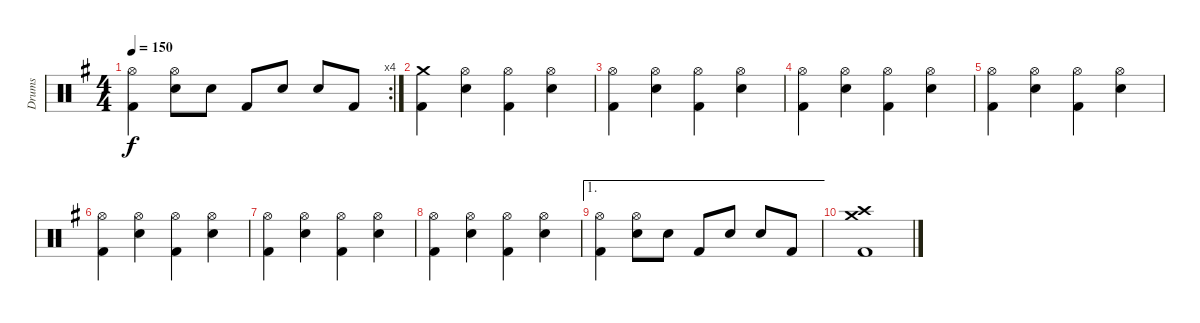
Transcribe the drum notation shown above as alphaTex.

\track ("Drums" "Drums") {instrument percussion}
\staff {score}
\articulation defaults
\rc 4
\ts (4 4)
\tempo 150
\clef neutral
\ks g
("Hi-Hat (open)" "Kick (hit) 2").4{dy f} ("Hi-Hat (open)" "Electric Snare (hit)").8 "Electric Snare (hit)".8 "Kick (hit) 2".8 "Electric Snare (hit)".8 "Electric Snare (hit)".8 "Kick (hit) 2".8 |
("Crash medium (hit)" "Kick (hit) 2").4 ("Hi-Hat (open)" "Electric Snare (hit)").4 ("Hi-Hat (open)" "Kick (hit) 2").4 ("Hi-Hat (open)" "Electric Snare (hit)").4 |
("Hi-Hat (open)" "Kick (hit) 2").4 ("Hi-Hat (open)" "Electric Snare (hit)").4 ("Hi-Hat (open)" "Kick (hit) 2").4 ("Hi-Hat (open)" "Electric Snare (hit)").4 |
("Hi-Hat (open)" "Kick (hit) 2").4 ("Hi-Hat (open)" "Electric Snare (hit)").4 ("Hi-Hat (open)" "Kick (hit) 2").4 ("Hi-Hat (open)" "Electric Snare (hit)").4 |
("Hi-Hat (open)" "Kick (hit) 2").4 ("Hi-Hat (open)" "Electric Snare (hit)").4 ("Hi-Hat (open)" "Kick (hit) 2").4 ("Hi-Hat (open)" "Electric Snare (hit)").4 |
("Hi-Hat (open)" "Kick (hit) 2").4 ("Hi-Hat (open)" "Electric Snare (hit)").4 ("Hi-Hat (open)" "Kick (hit) 2").4 ("Hi-Hat (open)" "Electric Snare (hit)").4 |
("Hi-Hat (open)" "Kick (hit) 2").4 ("Hi-Hat (open)" "Electric Snare (hit)").4 ("Hi-Hat (open)" "Kick (hit) 2").4 ("Hi-Hat (open)" "Electric Snare (hit)").4 |
("Hi-Hat (open)" "Kick (hit) 2").4 ("Hi-Hat (open)" "Electric Snare (hit)").4 ("Hi-Hat (open)" "Kick (hit) 2").4 ("Hi-Hat (open)" "Electric Snare (hit)").4 |
\ae 1
("Hi-Hat (open)" "Kick (hit) 2").4 ("Hi-Hat (open)" "Electric Snare (hit)").8 "Electric Snare (hit)".8 "Kick (hit) 2".8 "Electric Snare (hit)".8 "Electric Snare (hit)".8 "Kick (hit) 2".8 |
("Crash high (hit)" "Crash medium (hit)" "Kick (hit) 2").1
